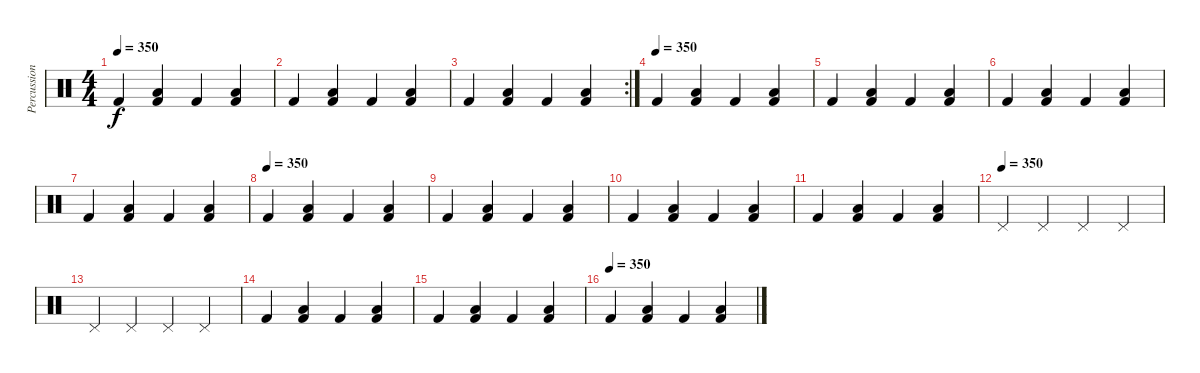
\track ("Percussion" "Percussion") {instrument percussion}
\staff {score}
\articulation defaults
\ts (4 4)
\tempo 350
\clef neutral
\ks c "Kick (hit) 2".4{dy f}
("Low Tom (hit)" "Kick (hit) 2").4 "Kick (hit) 2".4 ("Low Tom (hit)" "Kick (hit) 2").4 |
"Kick (hit) 2".4 ("Low Tom (hit)" "Kick (hit) 2").4 "Kick (hit) 2".4 ("Low Tom (hit)" "Kick (hit) 2").4 |
\rc 2 "Kick (hit) 2".4
("Low Tom (hit)" "Kick (hit) 2").4 "Kick (hit) 2".4 ("Low Tom (hit)" "Kick (hit) 2").4 |
\tempo (350)
"Kick (hit) 2".4 ("Low Tom (hit)" "Kick (hit) 2").4 "Kick (hit) 2".4 ("Low Tom (hit)" "Kick (hit) 2").4 |
"Kick (hit) 2".4 ("Low Tom (hit)" "Kick (hit) 2").4 "Kick (hit) 2".4 ("Low Tom (hit)" "Kick (hit) 2").4 |
"Kick (hit) 2".4 ("Low Tom (hit)" "Kick (hit) 2").4 "Kick (hit) 2".4 ("Low Tom (hit)" "Kick (hit) 2").4 |
"Kick (hit) 2".4 ("Low Tom (hit)" "Kick (hit) 2").4 "Kick (hit) 2".4 ("Low Tom (hit)" "Kick (hit) 2").4 |
\tempo (350)
"Kick (hit) 2".4 ("Low Tom (hit)" "Kick (hit) 2").4 "Kick (hit) 2".4 ("Low Tom (hit)" "Kick (hit) 2").4 |
"Kick (hit) 2".4 ("Low Tom (hit)" "Kick (hit) 2").4 "Kick (hit) 2".4 ("Low Tom (hit)" "Kick (hit) 2").4 |
"Kick (hit) 2".4 ("Low Tom (hit)" "Kick (hit) 2").4 "Kick (hit) 2".4 ("Low Tom (hit)" "Kick (hit) 2").4 |
"Kick (hit) 2".4 ("Low Tom (hit)" "Kick (hit) 2").4 "Kick (hit) 2".4 ("Low Tom (hit)" "Kick (hit) 2").4 |
\tempo (350)
"Pedal Hi-Hat (hit)".4 "Pedal Hi-Hat (hit)".4 "Pedal Hi-Hat (hit)".4 "Pedal Hi-Hat (hit)".4 |
"Pedal Hi-Hat (hit)".4 "Pedal Hi-Hat (hit)".4 "Pedal Hi-Hat (hit)".4 "Pedal Hi-Hat (hit)".4 |
"Kick (hit) 2".4 ("Low Tom (hit)" "Kick (hit) 2").4 "Kick (hit) 2".4 ("Low Tom (hit)" "Kick (hit) 2").4 |
"Kick (hit) 2".4 ("Low Tom (hit)" "Kick (hit) 2").4 "Kick (hit) 2".4 ("Low Tom (hit)" "Kick (hit) 2").4 |
\tempo (350)
"Kick (hit) 2".4 ("Low Tom (hit)" "Kick (hit) 2").4 "Kick (hit) 2".4 ("Low Tom (hit)" "Kick (hit) 2").4
